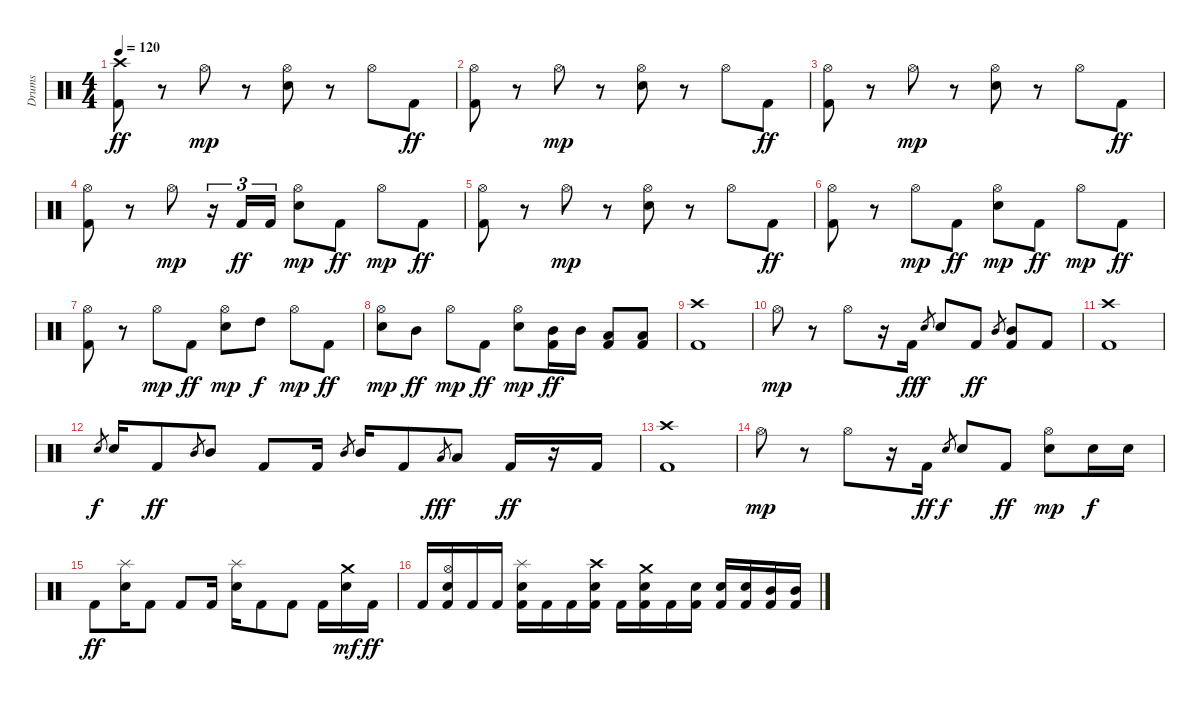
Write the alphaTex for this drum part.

\track ("Drums" "Drums") {instrument percussion}
\staff {score}
\articulation defaults
\ts (4 4)
\tempo 120
\clef neutral
\ks c
("Crash high (hit)" "Kick (hit) 2").8{dy ff} r.8 "Hi-Hat (open)".8{dy mp} r.8 ("Hi-Hat (open)" "Electric Snare (hit)").8 r.8 "Hi-Hat (open)".8 "Kick (hit) 2".8{dy ff} |
("Hi-Hat (open)" "Kick (hit) 2").8 r.8 "Hi-Hat (open)".8{dy mp} r.8 ("Hi-Hat (open)" "Electric Snare (hit)").8 r.8 "Hi-Hat (open)".8 "Kick (hit) 2".8{dy ff} |
("Hi-Hat (open)" "Kick (hit) 2").8 r.8 "Hi-Hat (open)".8{dy mp} r.8 ("Hi-Hat (open)" "Electric Snare (hit)").8 r.8 "Hi-Hat (open)".8 "Kick (hit) 2".8{dy ff} |
("Hi-Hat (open)" "Kick (hit) 2").8 r.8 "Hi-Hat (open)".8{dy mp} r.16{tu (3 2)} "Kick (hit) 2".16{tu (3 2) dy ff} "Kick (hit) 2".16{tu (3 2)} ("Hi-Hat (open)" "Electric Snare (hit)").8{dy mp} "Kick (hit) 2".8{dy ff} "Hi-Hat (open)".8{dy mp} "Kick (hit) 2".8{dy ff} |
("Hi-Hat (open)" "Kick (hit) 2").8 r.8 "Hi-Hat (open)".8{dy mp} r.8 ("Hi-Hat (open)" "Electric Snare (hit)").8 r.8 "Hi-Hat (open)".8 "Kick (hit) 2".8{dy ff} |
("Hi-Hat (open)" "Kick (hit) 2").8 r.8 "Hi-Hat (open)".8{dy mp} "Kick (hit) 2".8{dy ff} ("Hi-Hat (open)" "Electric Snare (hit)").8{dy mp} "Kick (hit) 2".8{dy ff} "Hi-Hat (open)".8{dy mp} "Kick (hit) 2".8{dy ff} |
("Hi-Hat (open)" "Kick (hit) 2").8 r.8 "Hi-Hat (open)".8{dy mp} "Kick (hit) 2".8{dy ff} ("Hi-Hat (open)" "Electric Snare (hit)").8{dy mp} "High Tom (hit)".8{dy f} "Hi-Hat (open)".8{dy mp} "Kick (hit) 2".8{dy ff} |
("Hi-Hat (open)" "Electric Snare (hit)").8{dy mp} "Mid Tom (hit)".8{dy ff} "Hi-Hat (open)".8{dy mp} "Kick (hit) 2".8{dy ff} ("Hi-Hat (open)" "Electric Snare (hit)").8{dy mp} ("Mid Tom (hit)" "Kick (hit) 2").16{dy ff} "Mid Tom (hit)".16 ("Low Tom (hit)" "Kick (hit) 2").8 ("Low Tom (hit)" "Kick (hit) 2").8 |
\section ("" "")
("Crash high (hit)" "Kick (hit) 2").1 |
"Hi-Hat (open)".8{dy mp} r.8 "Hi-Hat (open)".8 r.16 "Kick (hit) 2".16{dy ff} "Electric Snare (hit)".8{gr dy f} "Electric Snare (hit)".8 "Kick (hit) 2".8{dy ff} "Mid Tom (hit)".8{gr} ("Mid Tom (hit)" "Kick (hit) 2").8 "Kick (hit) 2".8 |
("Crash high (hit)" "Kick (hit) 2").1 |
"Electric Snare (hit)".8{gr dy f} "Electric Snare (hit)".16 "Kick (hit) 2".8{dy ff} "Mid Tom (hit)".8{gr} "Mid Tom (hit)".8 "Kick (hit) 2".8 "Kick (hit) 2".16 "Mid Tom (hit)".8{gr} "Mid Tom (hit)".16 "Kick (hit) 2".8 "Low Tom (hit)".8{gr dy fff} "Low Tom (hit)".8 "Kick (hit) 2".16{dy ff} r.16 "Kick (hit) 2".16 |
("Crash high (hit)" "Kick (hit) 2").1 |
"Hi-Hat (open)".8{dy mp} r.8 "Hi-Hat (open)".8 r.16 "Kick (hit) 2".16{dy ff} "Electric Snare (hit)".8{gr dy f} "Electric Snare (hit)".8 "Kick (hit) 2".8{dy ff} ("Hi-Hat (open)" "Electric Snare (hit)").8{dy mp} "Electric Snare (hit)".16{dy f} "Electric Snare (hit)".16 |
"Kick (hit) 2".8{dy ff} ("Splash (hit)" "Electric Snare (hit)").16 "Kick (hit) 2".8 "Kick (hit) 2".8 "Kick (hit) 2".16 ("Splash (hit)" "Electric Snare (hit)").16 "Kick (hit) 2".8 "Kick (hit) 2".8 "Kick (hit) 2".16 ("Crash medium (hit)" "Electric Snare (hit)").16{dy mf} "Kick (hit) 2".16{dy ff} |
"Kick (hit) 2".16 ("Hi-Hat (open)" "Electric Snare (hit)" "Kick (hit) 2").16 "Kick (hit) 2".16 "Kick (hit) 2".16 ("Splash (hit)" "Electric Snare (hit)" "Kick (hit) 2").16 "Kick (hit) 2".16 "Kick (hit) 2".16 ("Crash high (hit)" "Electric Snare (hit)" "Kick (hit) 2").16 "Kick (hit) 2".16 ("Crash medium (hit)" "Electric Snare (hit)" "Kick (hit) 2").16 "Kick (hit) 2".16 ("Electric Snare (hit)" "Kick (hit) 2").16 ("Electric Snare (hit)" "Kick (hit) 2").16 ("Electric Snare (hit)" "Kick (hit) 2").16 ("Mid Tom (hit)" "Kick (hit) 2").16 ("Mid Tom (hit)" "Kick (hit) 2").16
